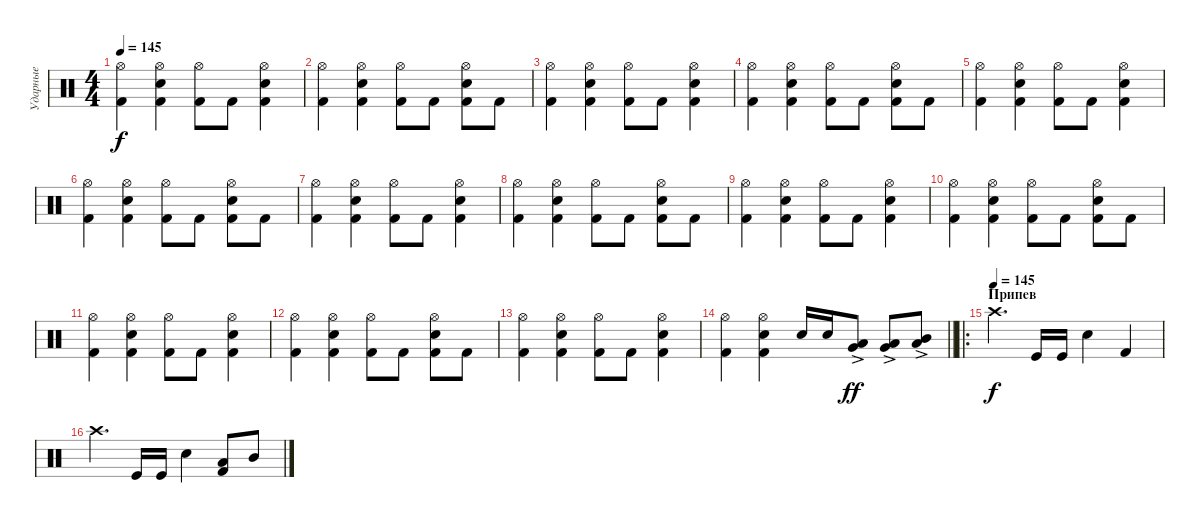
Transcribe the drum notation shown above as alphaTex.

\track ("Ударные" "Ударные") {instrument percussion}
\staff
\articulation defaults
\ts (4 4)
\tempo 145
\clef neutral
\ks c
("Hi-Hat (open)" "Kick (hit) 2").4{dy f} ("Hi-Hat (open)" "Snare (hit) 2" "Kick (hit) 2").4 ("Hi-Hat (open)" "Kick (hit) 2").8 "Kick (hit) 2".8 ("Hi-Hat (open)" "Snare (hit) 2" "Kick (hit) 2").4 |
("Hi-Hat (open)" "Kick (hit) 2").4 ("Hi-Hat (open)" "Snare (hit) 2" "Kick (hit) 2").4 ("Hi-Hat (open)" "Kick (hit) 2").8 "Kick (hit) 2".8 ("Hi-Hat (open)" "Snare (hit) 2" "Kick (hit) 2").8 "Kick (hit) 2".8 |
("Hi-Hat (open)" "Kick (hit) 2").4 ("Hi-Hat (open)" "Snare (hit) 2" "Kick (hit) 2").4 ("Hi-Hat (open)" "Kick (hit) 2").8 "Kick (hit) 2".8 ("Hi-Hat (open)" "Snare (hit) 2" "Kick (hit) 2").4 |
("Hi-Hat (open)" "Kick (hit) 2").4 ("Hi-Hat (open)" "Snare (hit) 2" "Kick (hit) 2").4 ("Hi-Hat (open)" "Kick (hit) 2").8 "Kick (hit) 2".8 ("Hi-Hat (open)" "Snare (hit) 2" "Kick (hit) 2").8 "Kick (hit) 2".8 |
("Hi-Hat (open)" "Kick (hit) 2").4 ("Hi-Hat (open)" "Snare (hit) 2" "Kick (hit) 2").4 ("Hi-Hat (open)" "Kick (hit) 2").8 "Kick (hit) 2".8 ("Hi-Hat (open)" "Snare (hit) 2" "Kick (hit) 2").4 |
("Hi-Hat (open)" "Kick (hit) 2").4 ("Hi-Hat (open)" "Snare (hit) 2" "Kick (hit) 2").4 ("Hi-Hat (open)" "Kick (hit) 2").8 "Kick (hit) 2".8 ("Hi-Hat (open)" "Snare (hit) 2" "Kick (hit) 2").8 "Kick (hit) 2".8 |
("Hi-Hat (open)" "Kick (hit) 2").4 ("Hi-Hat (open)" "Snare (hit) 2" "Kick (hit) 2").4 ("Hi-Hat (open)" "Kick (hit) 2").8 "Kick (hit) 2".8 ("Hi-Hat (open)" "Snare (hit) 2" "Kick (hit) 2").4 |
("Hi-Hat (open)" "Kick (hit) 2").4 ("Hi-Hat (open)" "Snare (hit) 2" "Kick (hit) 2").4 ("Hi-Hat (open)" "Kick (hit) 2").8 "Kick (hit) 2".8 ("Hi-Hat (open)" "Snare (hit) 2" "Kick (hit) 2").8 "Kick (hit) 2".8 |
("Hi-Hat (open)" "Kick (hit) 2").4 ("Hi-Hat (open)" "Snare (hit) 2" "Kick (hit) 2").4 ("Hi-Hat (open)" "Kick (hit) 2").8 "Kick (hit) 2".8 ("Hi-Hat (open)" "Snare (hit) 2" "Kick (hit) 2").4 |
("Hi-Hat (open)" "Kick (hit) 2").4 ("Hi-Hat (open)" "Snare (hit) 2" "Kick (hit) 2").4 ("Hi-Hat (open)" "Kick (hit) 2").8 "Kick (hit) 2".8 ("Hi-Hat (open)" "Snare (hit) 2" "Kick (hit) 2").8 "Kick (hit) 2".8 |
("Hi-Hat (open)" "Kick (hit) 2").4 ("Hi-Hat (open)" "Snare (hit) 2" "Kick (hit) 2").4 ("Hi-Hat (open)" "Kick (hit) 2").8 "Kick (hit) 2".8 ("Hi-Hat (open)" "Snare (hit) 2" "Kick (hit) 2").4 |
("Hi-Hat (open)" "Kick (hit) 2").4 ("Hi-Hat (open)" "Snare (hit) 2" "Kick (hit) 2").4 ("Hi-Hat (open)" "Kick (hit) 2").8 "Kick (hit) 2".8 ("Hi-Hat (open)" "Snare (hit) 2" "Kick (hit) 2").8 "Kick (hit) 2".8 |
("Hi-Hat (open)" "Kick (hit) 2").4 ("Hi-Hat (open)" "Snare (hit) 2" "Kick (hit) 2").4 ("Hi-Hat (open)" "Kick (hit) 2").8 "Kick (hit) 2".8 ("Hi-Hat (open)" "Snare (hit) 2" "Kick (hit) 2").4 |
\barLineRight lightlight
("Hi-Hat (open)" "Kick (hit) 2").4 ("Hi-Hat (open)" "Snare (hit) 2" "Kick (hit) 2").4 "Snare (hit) 2".16 "Snare (hit) 2".16 ("Low Floor Tom (hit)"{ac} "Very Low Tom (hit)").8{dy ff} ("Very Low Tom (hit)"{ac} "Low Tom (hit)").8 ("Low Tom (hit)"{ac} "Mid Tom (hit)").8 |
\ro
\section ("" "Припев")
\tempo (145)
"Crash high (hit)".4{d dy f} "Kick (hit)".16 "Kick (hit)".16 "Snare (hit) 2".4 "Kick (hit) 2".4 |
"Crash high (hit)".4{d} "Kick (hit)".16 "Kick (hit)".16 "Snare (hit) 2".4 ("Low Tom (hit)" "Kick (hit) 2").8 "Mid Tom (hit)".8
